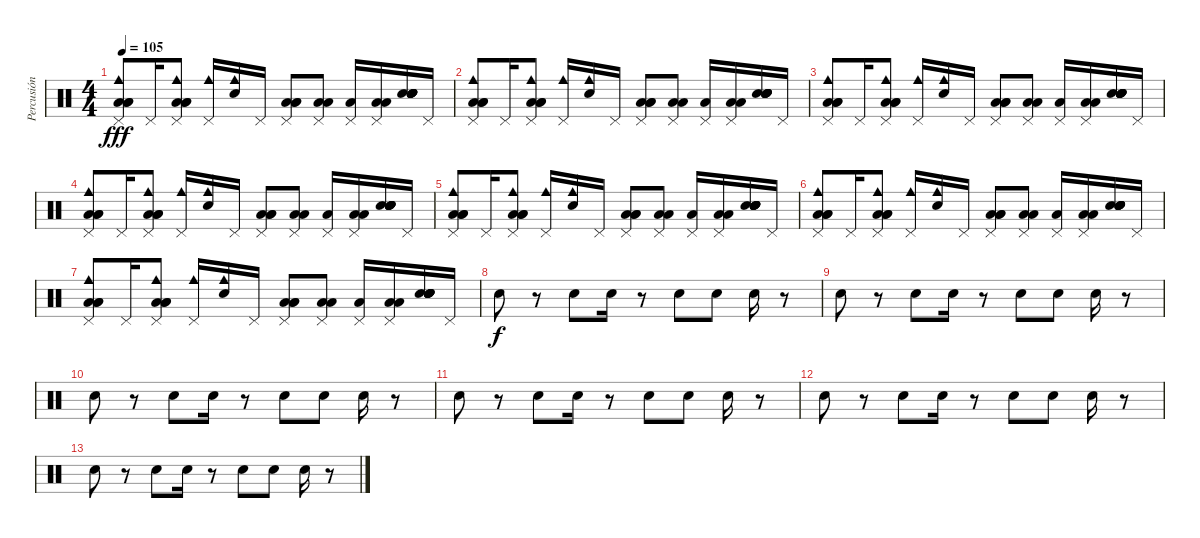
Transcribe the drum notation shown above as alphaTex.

\track ("Percusión" "Percusión") {instrument percussion}
\staff {score}
\articulation defaults
\ts (4 4)
\tempo 105
\clef neutral
\ks c
("Cowbell medium (hit)" "Low Tom (hit)" "Pedal Hi-Hat (hit)" "Low Tom (hit)" "Low Tom (hit)").8{dy fff} "Pedal Hi-Hat (hit)".16 ("Cowbell medium (hit)" "Low Tom (hit)" "Pedal Hi-Hat (hit)" "Low Tom (hit)" "Low Tom (hit)").8 ("Cowbell medium (hit)" "Pedal Hi-Hat (hit)").16 ("Cowbell medium (hit)" "Snare (hit) 2").16 "Pedal Hi-Hat (hit)".16 ("Low Tom (hit)" "Pedal Hi-Hat (hit)" "Low Tom (hit)" "Low Tom (hit)").8 ("Pedal Hi-Hat (hit)" "Low Tom (hit)" "Low Tom (hit)").8 ("Low Tom (hit)" "Pedal Hi-Hat (hit)").16 ("Pedal Hi-Hat (hit)" "Low Tom (hit)" "Low Tom (hit)").16 ("Snare (hit) 2" "Snare (hit) 2" "Snare (hit) 2" "Snare (hit) 2" "Snare (hit) 2" "Snare (hit) 2").16 "Pedal Hi-Hat (hit)".16 |
("Cowbell medium (hit)" "Low Tom (hit)" "Pedal Hi-Hat (hit)" "Low Tom (hit)" "Low Tom (hit)").8 "Pedal Hi-Hat (hit)".16 ("Cowbell medium (hit)" "Low Tom (hit)" "Pedal Hi-Hat (hit)" "Low Tom (hit)" "Low Tom (hit)").8 ("Cowbell medium (hit)" "Pedal Hi-Hat (hit)").16 ("Cowbell medium (hit)" "Snare (hit) 2").16 "Pedal Hi-Hat (hit)".16 ("Low Tom (hit)" "Pedal Hi-Hat (hit)" "Low Tom (hit)" "Low Tom (hit)").8 ("Pedal Hi-Hat (hit)" "Low Tom (hit)" "Low Tom (hit)").8 ("Low Tom (hit)" "Pedal Hi-Hat (hit)").16 ("Pedal Hi-Hat (hit)" "Low Tom (hit)" "Low Tom (hit)").16 ("Snare (hit) 2" "Snare (hit) 2" "Snare (hit) 2" "Snare (hit) 2" "Snare (hit) 2" "Snare (hit) 2").16 "Pedal Hi-Hat (hit)".16 |
("Cowbell medium (hit)" "Low Tom (hit)" "Pedal Hi-Hat (hit)" "Low Tom (hit)" "Low Tom (hit)").8 "Pedal Hi-Hat (hit)".16 ("Cowbell medium (hit)" "Low Tom (hit)" "Pedal Hi-Hat (hit)" "Low Tom (hit)" "Low Tom (hit)").8 ("Cowbell medium (hit)" "Pedal Hi-Hat (hit)").16 ("Cowbell medium (hit)" "Snare (hit) 2").16 "Pedal Hi-Hat (hit)".16 ("Low Tom (hit)" "Pedal Hi-Hat (hit)" "Low Tom (hit)" "Low Tom (hit)").8 ("Pedal Hi-Hat (hit)" "Low Tom (hit)" "Low Tom (hit)").8 ("Low Tom (hit)" "Pedal Hi-Hat (hit)").16 ("Pedal Hi-Hat (hit)" "Low Tom (hit)" "Low Tom (hit)").16 ("Snare (hit) 2" "Snare (hit) 2" "Snare (hit) 2" "Snare (hit) 2" "Snare (hit) 2" "Snare (hit) 2").16 "Pedal Hi-Hat (hit)".16 |
("Cowbell medium (hit)" "Low Tom (hit)" "Pedal Hi-Hat (hit)" "Low Tom (hit)" "Low Tom (hit)").8 "Pedal Hi-Hat (hit)".16 ("Cowbell medium (hit)" "Low Tom (hit)" "Pedal Hi-Hat (hit)" "Low Tom (hit)" "Low Tom (hit)").8 ("Cowbell medium (hit)" "Pedal Hi-Hat (hit)").16 ("Cowbell medium (hit)" "Snare (hit) 2").16 "Pedal Hi-Hat (hit)".16 ("Low Tom (hit)" "Pedal Hi-Hat (hit)" "Low Tom (hit)" "Low Tom (hit)").8 ("Pedal Hi-Hat (hit)" "Low Tom (hit)" "Low Tom (hit)").8 ("Low Tom (hit)" "Pedal Hi-Hat (hit)").16 ("Pedal Hi-Hat (hit)" "Low Tom (hit)" "Low Tom (hit)").16 ("Snare (hit) 2" "Snare (hit) 2" "Snare (hit) 2" "Snare (hit) 2" "Snare (hit) 2" "Snare (hit) 2").16 "Pedal Hi-Hat (hit)".16 |
("Cowbell medium (hit)" "Low Tom (hit)" "Pedal Hi-Hat (hit)" "Low Tom (hit)" "Low Tom (hit)").8 "Pedal Hi-Hat (hit)".16 ("Cowbell medium (hit)" "Low Tom (hit)" "Pedal Hi-Hat (hit)" "Low Tom (hit)" "Low Tom (hit)").8 ("Cowbell medium (hit)" "Pedal Hi-Hat (hit)").16 ("Cowbell medium (hit)" "Snare (hit) 2").16 "Pedal Hi-Hat (hit)".16 ("Low Tom (hit)" "Pedal Hi-Hat (hit)" "Low Tom (hit)" "Low Tom (hit)").8 ("Pedal Hi-Hat (hit)" "Low Tom (hit)" "Low Tom (hit)").8 ("Low Tom (hit)" "Pedal Hi-Hat (hit)").16 ("Pedal Hi-Hat (hit)" "Low Tom (hit)" "Low Tom (hit)").16 ("Snare (hit) 2" "Snare (hit) 2" "Snare (hit) 2" "Snare (hit) 2" "Snare (hit) 2" "Snare (hit) 2").16 "Pedal Hi-Hat (hit)".16 |
("Cowbell medium (hit)" "Low Tom (hit)" "Pedal Hi-Hat (hit)" "Low Tom (hit)" "Low Tom (hit)").8 "Pedal Hi-Hat (hit)".16 ("Cowbell medium (hit)" "Low Tom (hit)" "Pedal Hi-Hat (hit)" "Low Tom (hit)" "Low Tom (hit)").8 ("Cowbell medium (hit)" "Pedal Hi-Hat (hit)").16 ("Cowbell medium (hit)" "Snare (hit) 2").16 "Pedal Hi-Hat (hit)".16 ("Low Tom (hit)" "Pedal Hi-Hat (hit)" "Low Tom (hit)" "Low Tom (hit)").8 ("Pedal Hi-Hat (hit)" "Low Tom (hit)" "Low Tom (hit)").8 ("Low Tom (hit)" "Pedal Hi-Hat (hit)").16 ("Pedal Hi-Hat (hit)" "Low Tom (hit)" "Low Tom (hit)").16 ("Snare (hit) 2" "Snare (hit) 2" "Snare (hit) 2" "Snare (hit) 2" "Snare (hit) 2" "Snare (hit) 2").16 "Pedal Hi-Hat (hit)".16 |
("Cowbell medium (hit)" "Low Tom (hit)" "Pedal Hi-Hat (hit)" "Low Tom (hit)" "Low Tom (hit)").8 "Pedal Hi-Hat (hit)".16 ("Cowbell medium (hit)" "Low Tom (hit)" "Pedal Hi-Hat (hit)" "Low Tom (hit)" "Low Tom (hit)").8 ("Cowbell medium (hit)" "Pedal Hi-Hat (hit)").16 ("Cowbell medium (hit)" "Snare (hit) 2").16 "Pedal Hi-Hat (hit)".16 ("Low Tom (hit)" "Pedal Hi-Hat (hit)" "Low Tom (hit)" "Low Tom (hit)").8 ("Pedal Hi-Hat (hit)" "Low Tom (hit)" "Low Tom (hit)").8 ("Low Tom (hit)" "Pedal Hi-Hat (hit)").16 ("Pedal Hi-Hat (hit)" "Low Tom (hit)" "Low Tom (hit)").16 ("Snare (hit) 2" "Snare (hit) 2" "Snare (hit) 2" "Snare (hit) 2" "Snare (hit) 2" "Snare (hit) 2").16 "Pedal Hi-Hat (hit)".16 |
"Hand Clap (hit)".8{dy f} r.8 "Hand Clap (hit)".8 "Hand Clap (hit)".16 r.8 "Hand Clap (hit)".8 "Hand Clap (hit)".8 "Hand Clap (hit)".16 r.8 |
"Hand Clap (hit)".8 r.8 "Hand Clap (hit)".8 "Hand Clap (hit)".16 r.8 "Hand Clap (hit)".8 "Hand Clap (hit)".8 "Hand Clap (hit)".16 r.8 |
"Hand Clap (hit)".8 r.8 "Hand Clap (hit)".8 "Hand Clap (hit)".16 r.8 "Hand Clap (hit)".8 "Hand Clap (hit)".8 "Hand Clap (hit)".16 r.8 |
"Hand Clap (hit)".8 r.8 "Hand Clap (hit)".8 "Hand Clap (hit)".16 r.8 "Hand Clap (hit)".8 "Hand Clap (hit)".8 "Hand Clap (hit)".16 r.8 |
"Hand Clap (hit)".8 r.8 "Hand Clap (hit)".8 "Hand Clap (hit)".16 r.8 "Hand Clap (hit)".8 "Hand Clap (hit)".8 "Hand Clap (hit)".16 r.8 |
"Hand Clap (hit)".8 r.8 "Hand Clap (hit)".8 "Hand Clap (hit)".16 r.8 "Hand Clap (hit)".8 "Hand Clap (hit)".8 "Hand Clap (hit)".16 r.8
